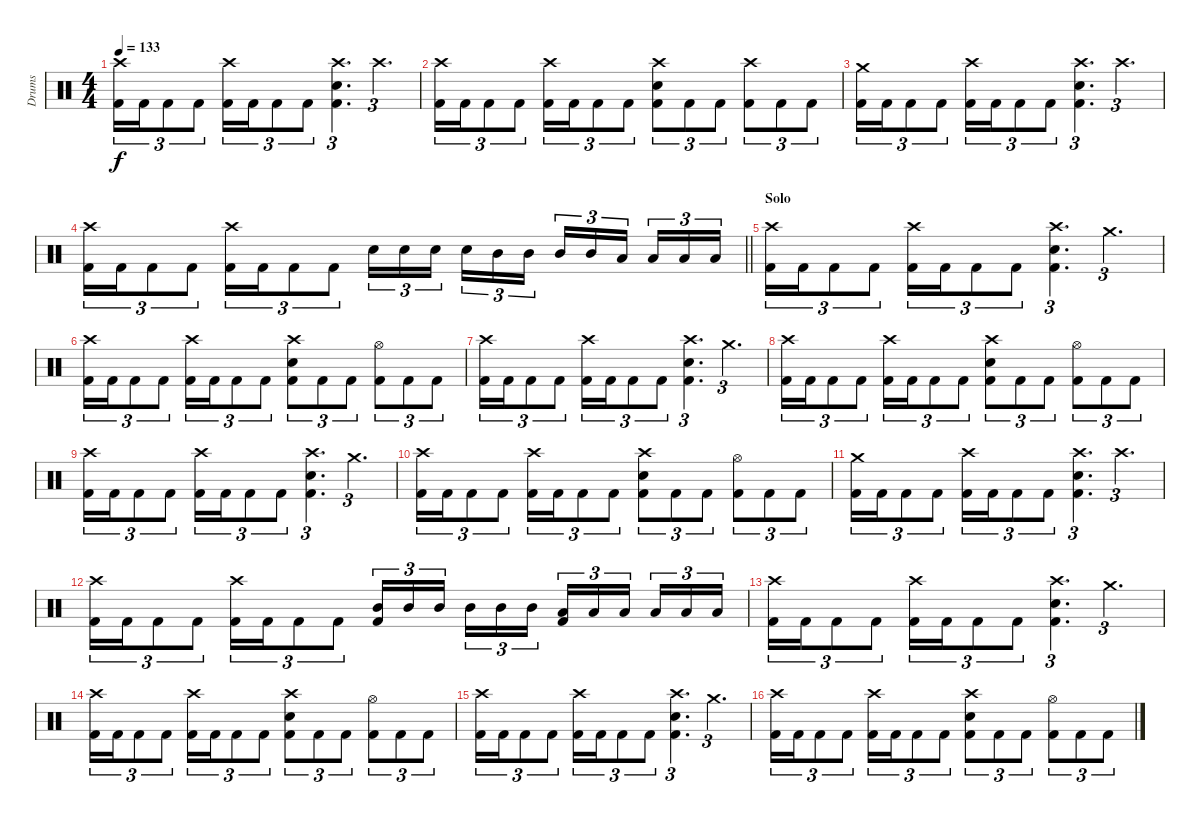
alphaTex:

\track ("Drums" "Drums") {instrument percussion}
\staff {score}
\articulation defaults
\ts (4 4)
\tempo 133
\clef neutral
\ks c
("Crash high (hit)" "Kick (hit) 2").16{tu (3 2) dy f} "Kick (hit) 2".16{tu (3 2)} "Kick (hit) 2".8{tu (3 2)} "Kick (hit) 2".8{tu (3 2)} ("Crash high (hit)" "Kick (hit) 2").16{tu (3 2)} "Kick (hit) 2".16{tu (3 2)} "Kick (hit) 2".8{tu (3 2)} "Kick (hit) 2".8{tu (3 2)} ("Crash high (hit)" "Snare (hit) 2" "Kick (hit) 2").4{d tu (3 2)} "Crash high (hit)".4{d tu (3 2)} |
("Crash high (hit)" "Kick (hit) 2").16{tu (3 2)} "Kick (hit) 2".16{tu (3 2)} "Kick (hit) 2".8{tu (3 2)} "Kick (hit) 2".8{tu (3 2)} ("Crash high (hit)" "Kick (hit) 2").16{tu (3 2)} "Kick (hit) 2".16{tu (3 2)} "Kick (hit) 2".8{tu (3 2)} "Kick (hit) 2".8{tu (3 2)} ("Crash high (hit)" "Snare (hit) 2" "Kick (hit) 2").8{tu (3 2)} "Kick (hit) 2".8{tu (3 2)} "Kick (hit) 2".8{tu (3 2)} ("Crash high (hit)" "Kick (hit) 2").8{tu (3 2)} "Kick (hit) 2".8{tu (3 2)} "Kick (hit) 2".8{tu (3 2)} |
("Crash medium (hit)" "Kick (hit) 2").16{tu (3 2)} "Kick (hit) 2".16{tu (3 2)} "Kick (hit) 2".8{tu (3 2)} "Kick (hit) 2".8{tu (3 2)} ("Crash high (hit)" "Kick (hit) 2").16{tu (3 2)} "Kick (hit) 2".16{tu (3 2)} "Kick (hit) 2".8{tu (3 2)} "Kick (hit) 2".8{tu (3 2)} ("Crash high (hit)" "Snare (hit) 2" "Kick (hit) 2").4{d tu (3 2)} "Crash high (hit)".4{d tu (3 2)} |
\barLineRight lightlight
("Crash high (hit)" "Kick (hit) 2").16{tu (3 2)} "Kick (hit) 2".16{tu (3 2)} "Kick (hit) 2".8{tu (3 2)} "Kick (hit) 2".8{tu (3 2)} ("Crash high (hit)" "Kick (hit) 2").16{tu (3 2)} "Kick (hit) 2".16{tu (3 2)} "Kick (hit) 2".8{tu (3 2)} "Kick (hit) 2".8{tu (3 2)} "Snare (hit) 2".16{tu (3 2)} "Snare (hit) 2".16{tu (3 2)} "Snare (hit) 2".16{tu (3 2) beam splitsecondary} "Snare (hit) 2".16{tu (3 2)} "Mid Tom (hit)".16{tu (3 2)} "Mid Tom (hit)".16{tu (3 2)} "Mid Tom (hit)".16{tu (3 2)} "Mid Tom (hit)".16{tu (3 2)} "Low Tom (hit)".16{tu (3 2) beam splitsecondary} "Low Tom (hit)".16{tu (3 2)} "Low Tom (hit)".16{tu (3 2)} "Low Tom (hit)".16{tu (3 2)} |
\section ("" "Solo")
("Crash high (hit)" "Kick (hit) 2").16{tu (3 2)} "Kick (hit) 2".16{tu (3 2)} "Kick (hit) 2".8{tu (3 2)} "Kick (hit) 2".8{tu (3 2)} ("Crash high (hit)" "Kick (hit) 2").16{tu (3 2)} "Kick (hit) 2".16{tu (3 2)} "Kick (hit) 2".8{tu (3 2)} "Kick (hit) 2".8{tu (3 2)} ("Crash high (hit)" "Snare (hit) 2" "Kick (hit) 2").4{d tu (3 2)} "Crash medium (hit)".4{d tu (3 2)} |
("Crash high (hit)" "Kick (hit) 2").16{tu (3 2)} "Kick (hit) 2".16{tu (3 2)} "Kick (hit) 2".8{tu (3 2)} "Kick (hit) 2".8{tu (3 2)} ("Crash high (hit)" "Kick (hit) 2").16{tu (3 2)} "Kick (hit) 2".16{tu (3 2)} "Kick (hit) 2".8{tu (3 2)} "Kick (hit) 2".8{tu (3 2)} ("Crash high (hit)" "Snare (hit) 2" "Kick (hit) 2").8{tu (3 2)} "Kick (hit) 2".8{tu (3 2)} "Kick (hit) 2".8{tu (3 2)} ("Hi-Hat (open)" "Kick (hit) 2").8{tu (3 2)} "Kick (hit) 2".8{tu (3 2)} "Kick (hit) 2".8{tu (3 2)} |
("Crash high (hit)" "Kick (hit) 2").16{tu (3 2)} "Kick (hit) 2".16{tu (3 2)} "Kick (hit) 2".8{tu (3 2)} "Kick (hit) 2".8{tu (3 2)} ("Crash high (hit)" "Kick (hit) 2").16{tu (3 2)} "Kick (hit) 2".16{tu (3 2)} "Kick (hit) 2".8{tu (3 2)} "Kick (hit) 2".8{tu (3 2)} ("Crash high (hit)" "Snare (hit) 2" "Kick (hit) 2").4{d tu (3 2)} "Crash medium (hit)".4{d tu (3 2)} |
("Crash high (hit)" "Kick (hit) 2").16{tu (3 2)} "Kick (hit) 2".16{tu (3 2)} "Kick (hit) 2".8{tu (3 2)} "Kick (hit) 2".8{tu (3 2)} ("Crash high (hit)" "Kick (hit) 2").16{tu (3 2)} "Kick (hit) 2".16{tu (3 2)} "Kick (hit) 2".8{tu (3 2)} "Kick (hit) 2".8{tu (3 2)} ("Crash high (hit)" "Snare (hit) 2" "Kick (hit) 2").8{tu (3 2)} "Kick (hit) 2".8{tu (3 2)} "Kick (hit) 2".8{tu (3 2)} ("Hi-Hat (open)" "Kick (hit) 2").8{tu (3 2)} "Kick (hit) 2".8{tu (3 2)} "Kick (hit) 2".8{tu (3 2)} |
("Crash high (hit)" "Kick (hit) 2").16{tu (3 2)} "Kick (hit) 2".16{tu (3 2)} "Kick (hit) 2".8{tu (3 2)} "Kick (hit) 2".8{tu (3 2)} ("Crash high (hit)" "Kick (hit) 2").16{tu (3 2)} "Kick (hit) 2".16{tu (3 2)} "Kick (hit) 2".8{tu (3 2)} "Kick (hit) 2".8{tu (3 2)} ("Crash high (hit)" "Snare (hit) 2" "Kick (hit) 2").4{d tu (3 2)} "Crash medium (hit)".4{d tu (3 2)} |
("Crash high (hit)" "Kick (hit) 2").16{tu (3 2)} "Kick (hit) 2".16{tu (3 2)} "Kick (hit) 2".8{tu (3 2)} "Kick (hit) 2".8{tu (3 2)} ("Crash high (hit)" "Kick (hit) 2").16{tu (3 2)} "Kick (hit) 2".16{tu (3 2)} "Kick (hit) 2".8{tu (3 2)} "Kick (hit) 2".8{tu (3 2)} ("Crash high (hit)" "Snare (hit) 2" "Kick (hit) 2").8{tu (3 2)} "Kick (hit) 2".8{tu (3 2)} "Kick (hit) 2".8{tu (3 2)} ("Hi-Hat (open)" "Kick (hit) 2").8{tu (3 2)} "Kick (hit) 2".8{tu (3 2)} "Kick (hit) 2".8{tu (3 2)} |
("Crash medium (hit)" "Kick (hit) 2").16{tu (3 2)} "Kick (hit) 2".16{tu (3 2)} "Kick (hit) 2".8{tu (3 2)} "Kick (hit) 2".8{tu (3 2)} ("Crash high (hit)" "Kick (hit) 2").16{tu (3 2)} "Kick (hit) 2".16{tu (3 2)} "Kick (hit) 2".8{tu (3 2)} "Kick (hit) 2".8{tu (3 2)} ("Crash high (hit)" "Snare (hit) 2" "Kick (hit) 2").4{d tu (3 2)} "Crash high (hit)".4{d tu (3 2)} |
("Crash high (hit)" "Kick (hit) 2").16{tu (3 2)} "Kick (hit) 2".16{tu (3 2)} "Kick (hit) 2".8{tu (3 2)} "Kick (hit) 2".8{tu (3 2)} ("Crash high (hit)" "Kick (hit) 2").16{tu (3 2)} "Kick (hit) 2".16{tu (3 2)} "Kick (hit) 2".8{tu (3 2)} "Kick (hit) 2".8{tu (3 2)} ("Mid Tom (hit)" "Kick (hit) 2").16{tu (3 2)} "Mid Tom (hit)".16{tu (3 2)} "Mid Tom (hit)".16{tu (3 2) beam splitsecondary} "Mid Tom (hit)".16{tu (3 2)} "Mid Tom (hit)".16{tu (3 2)} "Mid Tom (hit)".16{tu (3 2)} ("Low Tom (hit)" "Kick (hit) 2").16{tu (3 2)} "Low Tom (hit)".16{tu (3 2)} "Low Tom (hit)".16{tu (3 2) beam splitsecondary} "Low Tom (hit)".16{tu (3 2)} "Low Tom (hit)".16{tu (3 2)} "Low Tom (hit)".16{tu (3 2)} |
("Crash high (hit)" "Kick (hit) 2").16{tu (3 2)} "Kick (hit) 2".16{tu (3 2)} "Kick (hit) 2".8{tu (3 2)} "Kick (hit) 2".8{tu (3 2)} ("Crash high (hit)" "Kick (hit) 2").16{tu (3 2)} "Kick (hit) 2".16{tu (3 2)} "Kick (hit) 2".8{tu (3 2)} "Kick (hit) 2".8{tu (3 2)} ("Crash high (hit)" "Snare (hit) 2" "Kick (hit) 2").4{d tu (3 2)} "Crash medium (hit)".4{d tu (3 2)} |
("Crash high (hit)" "Kick (hit) 2").16{tu (3 2)} "Kick (hit) 2".16{tu (3 2)} "Kick (hit) 2".8{tu (3 2)} "Kick (hit) 2".8{tu (3 2)} ("Crash high (hit)" "Kick (hit) 2").16{tu (3 2)} "Kick (hit) 2".16{tu (3 2)} "Kick (hit) 2".8{tu (3 2)} "Kick (hit) 2".8{tu (3 2)} ("Crash high (hit)" "Snare (hit) 2" "Kick (hit) 2").8{tu (3 2)} "Kick (hit) 2".8{tu (3 2)} "Kick (hit) 2".8{tu (3 2)} ("Hi-Hat (open)" "Kick (hit) 2").8{tu (3 2)} "Kick (hit) 2".8{tu (3 2)} "Kick (hit) 2".8{tu (3 2)} |
("Crash high (hit)" "Kick (hit) 2").16{tu (3 2)} "Kick (hit) 2".16{tu (3 2)} "Kick (hit) 2".8{tu (3 2)} "Kick (hit) 2".8{tu (3 2)} ("Crash high (hit)" "Kick (hit) 2").16{tu (3 2)} "Kick (hit) 2".16{tu (3 2)} "Kick (hit) 2".8{tu (3 2)} "Kick (hit) 2".8{tu (3 2)} ("Crash high (hit)" "Snare (hit) 2" "Kick (hit) 2").4{d tu (3 2)} "Crash medium (hit)".4{d tu (3 2)} |
("Crash high (hit)" "Kick (hit) 2").16{tu (3 2)} "Kick (hit) 2".16{tu (3 2)} "Kick (hit) 2".8{tu (3 2)} "Kick (hit) 2".8{tu (3 2)} ("Crash high (hit)" "Kick (hit) 2").16{tu (3 2)} "Kick (hit) 2".16{tu (3 2)} "Kick (hit) 2".8{tu (3 2)} "Kick (hit) 2".8{tu (3 2)} ("Crash high (hit)" "Snare (hit) 2" "Kick (hit) 2").8{tu (3 2)} "Kick (hit) 2".8{tu (3 2)} "Kick (hit) 2".8{tu (3 2)} ("Hi-Hat (open)" "Kick (hit) 2").8{tu (3 2)} "Kick (hit) 2".8{tu (3 2)} "Kick (hit) 2".8{tu (3 2)}
